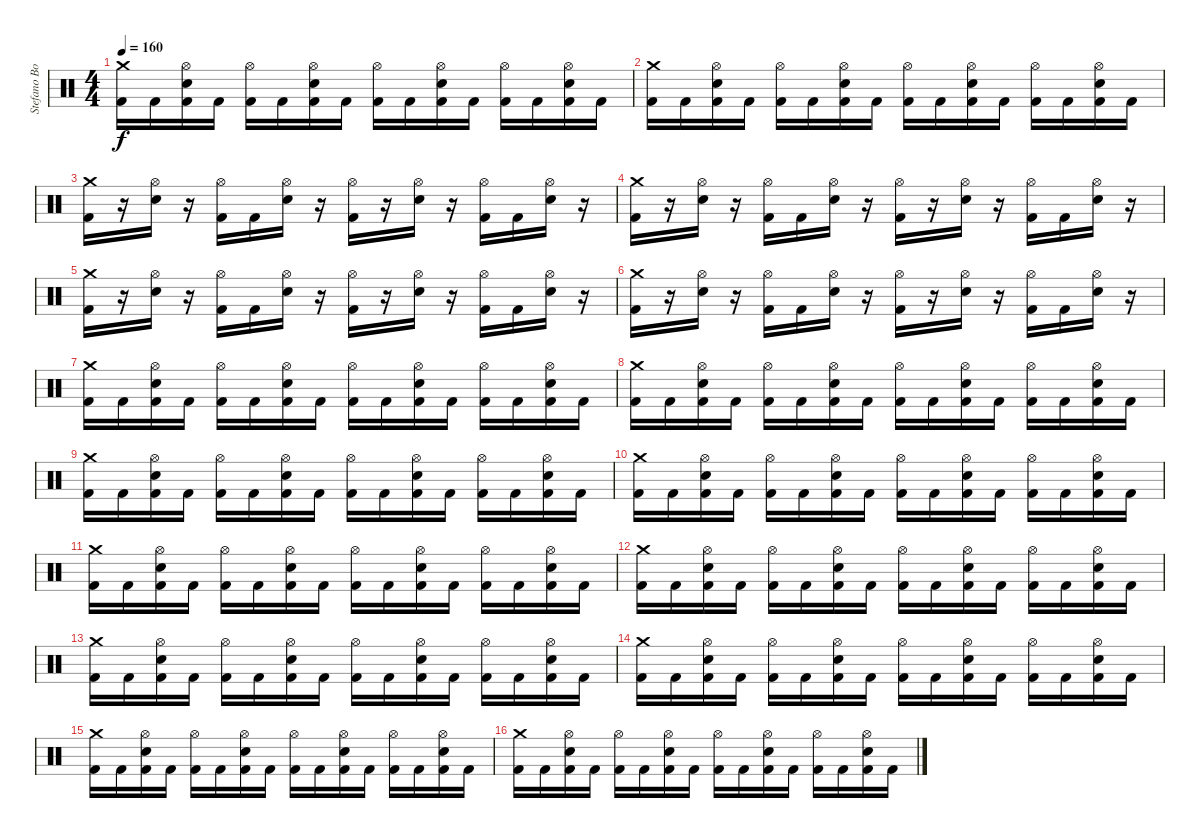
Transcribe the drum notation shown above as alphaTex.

\track ("Stefano Bonini" "Stefano Bo") {instrument percussion}
\staff {score}
\articulation defaults
\ts (4 4)
\tempo 160
\clef neutral
\ks c
("Crash medium (hit)" "Kick (hit) 2").16{dy f} "Kick (hit) 2".16 ("Hi-Hat (open)" "Snare (hit) 2" "Kick (hit) 2").16 "Kick (hit) 2".16 ("Hi-Hat (open)" "Kick (hit) 2").16 "Kick (hit) 2".16 ("Hi-Hat (open)" "Snare (hit) 2" "Kick (hit) 2").16 "Kick (hit) 2".16 ("Hi-Hat (open)" "Kick (hit) 2").16 "Kick (hit) 2".16 ("Hi-Hat (open)" "Snare (hit) 2" "Kick (hit) 2").16 "Kick (hit) 2".16 ("Hi-Hat (open)" "Kick (hit) 2").16 "Kick (hit) 2".16 ("Hi-Hat (open)" "Snare (hit) 2" "Kick (hit) 2").16 "Kick (hit) 2".16 |
("Crash medium (hit)" "Kick (hit) 2").16 "Kick (hit) 2".16 ("Hi-Hat (open)" "Snare (hit) 2" "Kick (hit) 2").16 "Kick (hit) 2".16 ("Hi-Hat (open)" "Kick (hit) 2").16 "Kick (hit) 2".16 ("Hi-Hat (open)" "Snare (hit) 2" "Kick (hit) 2").16 "Kick (hit) 2".16 ("Hi-Hat (open)" "Kick (hit) 2").16 "Kick (hit) 2".16 ("Hi-Hat (open)" "Snare (hit) 2" "Kick (hit) 2").16 "Kick (hit) 2".16 ("Hi-Hat (open)" "Kick (hit) 2").16 "Kick (hit) 2".16 ("Hi-Hat (open)" "Snare (hit) 2" "Kick (hit) 2").16 "Kick (hit) 2".16 |
("Crash medium (hit)" "Kick (hit) 2").16 r.16 ("Hi-Hat (open)" "Snare (hit) 2").16 r.16 ("Hi-Hat (open)" "Kick (hit) 2").16 "Kick (hit) 2".16 ("Hi-Hat (open)" "Snare (hit) 2").16 r.16 ("Hi-Hat (open)" "Kick (hit) 2").16 r.16 ("Hi-Hat (open)" "Snare (hit) 2").16 r.16 ("Hi-Hat (open)" "Kick (hit) 2").16 "Kick (hit) 2".16 ("Hi-Hat (open)" "Snare (hit) 2").16 r.16 |
("Crash medium (hit)" "Kick (hit) 2").16 r.16 ("Hi-Hat (open)" "Snare (hit) 2").16 r.16 ("Hi-Hat (open)" "Kick (hit) 2").16 "Kick (hit) 2".16 ("Hi-Hat (open)" "Snare (hit) 2").16 r.16 ("Hi-Hat (open)" "Kick (hit) 2").16 r.16 ("Hi-Hat (open)" "Snare (hit) 2").16 r.16 ("Hi-Hat (open)" "Kick (hit) 2").16 "Kick (hit) 2".16 ("Hi-Hat (open)" "Snare (hit) 2").16 r.16 |
("Crash medium (hit)" "Kick (hit) 2").16 r.16 ("Hi-Hat (open)" "Snare (hit) 2").16 r.16 ("Hi-Hat (open)" "Kick (hit) 2").16 "Kick (hit) 2".16 ("Hi-Hat (open)" "Snare (hit) 2").16 r.16 ("Hi-Hat (open)" "Kick (hit) 2").16 r.16 ("Hi-Hat (open)" "Snare (hit) 2").16 r.16 ("Hi-Hat (open)" "Kick (hit) 2").16 "Kick (hit) 2".16 ("Hi-Hat (open)" "Snare (hit) 2").16 r.16 |
("Crash medium (hit)" "Kick (hit) 2").16 r.16 ("Hi-Hat (open)" "Snare (hit) 2").16 r.16 ("Hi-Hat (open)" "Kick (hit) 2").16 "Kick (hit) 2".16 ("Hi-Hat (open)" "Snare (hit) 2").16 r.16 ("Hi-Hat (open)" "Kick (hit) 2").16 r.16 ("Hi-Hat (open)" "Snare (hit) 2").16 r.16 ("Hi-Hat (open)" "Kick (hit) 2").16 "Kick (hit) 2".16 ("Hi-Hat (open)" "Snare (hit) 2").16 r.16 |
("Crash medium (hit)" "Kick (hit) 2").16 "Kick (hit) 2".16 ("Hi-Hat (open)" "Snare (hit) 2" "Kick (hit) 2").16 "Kick (hit) 2".16 ("Hi-Hat (open)" "Kick (hit) 2").16 "Kick (hit) 2".16 ("Hi-Hat (open)" "Snare (hit) 2" "Kick (hit) 2").16 "Kick (hit) 2".16 ("Hi-Hat (open)" "Kick (hit) 2").16 "Kick (hit) 2".16 ("Hi-Hat (open)" "Snare (hit) 2" "Kick (hit) 2").16 "Kick (hit) 2".16 ("Hi-Hat (open)" "Kick (hit) 2").16 "Kick (hit) 2".16 ("Hi-Hat (open)" "Snare (hit) 2" "Kick (hit) 2").16 "Kick (hit) 2".16 |
("Crash medium (hit)" "Kick (hit) 2").16 "Kick (hit) 2".16 ("Hi-Hat (open)" "Snare (hit) 2" "Kick (hit) 2").16 "Kick (hit) 2".16 ("Hi-Hat (open)" "Kick (hit) 2").16 "Kick (hit) 2".16 ("Hi-Hat (open)" "Snare (hit) 2" "Kick (hit) 2").16 "Kick (hit) 2".16 ("Hi-Hat (open)" "Kick (hit) 2").16 "Kick (hit) 2".16 ("Hi-Hat (open)" "Snare (hit) 2" "Kick (hit) 2").16 "Kick (hit) 2".16 ("Hi-Hat (open)" "Kick (hit) 2").16 "Kick (hit) 2".16 ("Hi-Hat (open)" "Snare (hit) 2" "Kick (hit) 2").16 "Kick (hit) 2".16 |
("Crash medium (hit)" "Kick (hit) 2").16 "Kick (hit) 2".16 ("Hi-Hat (open)" "Snare (hit) 2" "Kick (hit) 2").16 "Kick (hit) 2".16 ("Hi-Hat (open)" "Kick (hit) 2").16 "Kick (hit) 2".16 ("Hi-Hat (open)" "Snare (hit) 2" "Kick (hit) 2").16 "Kick (hit) 2".16 ("Hi-Hat (open)" "Kick (hit) 2").16 "Kick (hit) 2".16 ("Hi-Hat (open)" "Snare (hit) 2" "Kick (hit) 2").16 "Kick (hit) 2".16 ("Hi-Hat (open)" "Kick (hit) 2").16 "Kick (hit) 2".16 ("Hi-Hat (open)" "Snare (hit) 2" "Kick (hit) 2").16 "Kick (hit) 2".16 |
("Crash medium (hit)" "Kick (hit) 2").16 "Kick (hit) 2".16 ("Hi-Hat (open)" "Snare (hit) 2" "Kick (hit) 2").16 "Kick (hit) 2".16 ("Hi-Hat (open)" "Kick (hit) 2").16 "Kick (hit) 2".16 ("Hi-Hat (open)" "Snare (hit) 2" "Kick (hit) 2").16 "Kick (hit) 2".16 ("Hi-Hat (open)" "Kick (hit) 2").16 "Kick (hit) 2".16 ("Hi-Hat (open)" "Snare (hit) 2" "Kick (hit) 2").16 "Kick (hit) 2".16 ("Hi-Hat (open)" "Kick (hit) 2").16 "Kick (hit) 2".16 ("Hi-Hat (open)" "Snare (hit) 2" "Kick (hit) 2").16 "Kick (hit) 2".16 |
("Crash medium (hit)" "Kick (hit) 2").16 "Kick (hit) 2".16 ("Hi-Hat (open)" "Snare (hit) 2" "Kick (hit) 2").16 "Kick (hit) 2".16 ("Hi-Hat (open)" "Kick (hit) 2").16 "Kick (hit) 2".16 ("Hi-Hat (open)" "Snare (hit) 2" "Kick (hit) 2").16 "Kick (hit) 2".16 ("Hi-Hat (open)" "Kick (hit) 2").16 "Kick (hit) 2".16 ("Hi-Hat (open)" "Snare (hit) 2" "Kick (hit) 2").16 "Kick (hit) 2".16 ("Hi-Hat (open)" "Kick (hit) 2").16 "Kick (hit) 2".16 ("Hi-Hat (open)" "Snare (hit) 2" "Kick (hit) 2").16 "Kick (hit) 2".16 |
("Crash medium (hit)" "Kick (hit) 2").16 "Kick (hit) 2".16 ("Hi-Hat (open)" "Snare (hit) 2" "Kick (hit) 2").16 "Kick (hit) 2".16 ("Hi-Hat (open)" "Kick (hit) 2").16 "Kick (hit) 2".16 ("Hi-Hat (open)" "Snare (hit) 2" "Kick (hit) 2").16 "Kick (hit) 2".16 ("Hi-Hat (open)" "Kick (hit) 2").16 "Kick (hit) 2".16 ("Hi-Hat (open)" "Snare (hit) 2" "Kick (hit) 2").16 "Kick (hit) 2".16 ("Hi-Hat (open)" "Kick (hit) 2").16 "Kick (hit) 2".16 ("Hi-Hat (open)" "Snare (hit) 2" "Kick (hit) 2").16 "Kick (hit) 2".16 |
("Crash medium (hit)" "Kick (hit) 2").16 "Kick (hit) 2".16 ("Hi-Hat (open)" "Snare (hit) 2" "Kick (hit) 2").16 "Kick (hit) 2".16 ("Hi-Hat (open)" "Kick (hit) 2").16 "Kick (hit) 2".16 ("Hi-Hat (open)" "Snare (hit) 2" "Kick (hit) 2").16 "Kick (hit) 2".16 ("Hi-Hat (open)" "Kick (hit) 2").16 "Kick (hit) 2".16 ("Hi-Hat (open)" "Snare (hit) 2" "Kick (hit) 2").16 "Kick (hit) 2".16 ("Hi-Hat (open)" "Kick (hit) 2").16 "Kick (hit) 2".16 ("Hi-Hat (open)" "Snare (hit) 2" "Kick (hit) 2").16 "Kick (hit) 2".16 |
("Crash medium (hit)" "Kick (hit) 2").16 "Kick (hit) 2".16 ("Hi-Hat (open)" "Snare (hit) 2" "Kick (hit) 2").16 "Kick (hit) 2".16 ("Hi-Hat (open)" "Kick (hit) 2").16 "Kick (hit) 2".16 ("Hi-Hat (open)" "Snare (hit) 2" "Kick (hit) 2").16 "Kick (hit) 2".16 ("Hi-Hat (open)" "Kick (hit) 2").16 "Kick (hit) 2".16 ("Hi-Hat (open)" "Snare (hit) 2" "Kick (hit) 2").16 "Kick (hit) 2".16 ("Hi-Hat (open)" "Kick (hit) 2").16 "Kick (hit) 2".16 ("Hi-Hat (open)" "Snare (hit) 2" "Kick (hit) 2").16 "Kick (hit) 2".16 |
("Crash medium (hit)" "Kick (hit) 2").16 "Kick (hit) 2".16 ("Hi-Hat (open)" "Snare (hit) 2" "Kick (hit) 2").16 "Kick (hit) 2".16 ("Hi-Hat (open)" "Kick (hit) 2").16 "Kick (hit) 2".16 ("Hi-Hat (open)" "Snare (hit) 2" "Kick (hit) 2").16 "Kick (hit) 2".16 ("Hi-Hat (open)" "Kick (hit) 2").16 "Kick (hit) 2".16 ("Hi-Hat (open)" "Snare (hit) 2" "Kick (hit) 2").16 "Kick (hit) 2".16 ("Hi-Hat (open)" "Kick (hit) 2").16 "Kick (hit) 2".16 ("Hi-Hat (open)" "Snare (hit) 2" "Kick (hit) 2").16 "Kick (hit) 2".16 |
("Crash medium (hit)" "Kick (hit) 2").16 "Kick (hit) 2".16 ("Hi-Hat (open)" "Snare (hit) 2" "Kick (hit) 2").16 "Kick (hit) 2".16 ("Hi-Hat (open)" "Kick (hit) 2").16 "Kick (hit) 2".16 ("Hi-Hat (open)" "Snare (hit) 2" "Kick (hit) 2").16 "Kick (hit) 2".16 ("Hi-Hat (open)" "Kick (hit) 2").16 "Kick (hit) 2".16 ("Hi-Hat (open)" "Snare (hit) 2" "Kick (hit) 2").16 "Kick (hit) 2".16 ("Hi-Hat (open)" "Kick (hit) 2").16 "Kick (hit) 2".16 ("Hi-Hat (open)" "Snare (hit) 2" "Kick (hit) 2").16 "Kick (hit) 2".16
